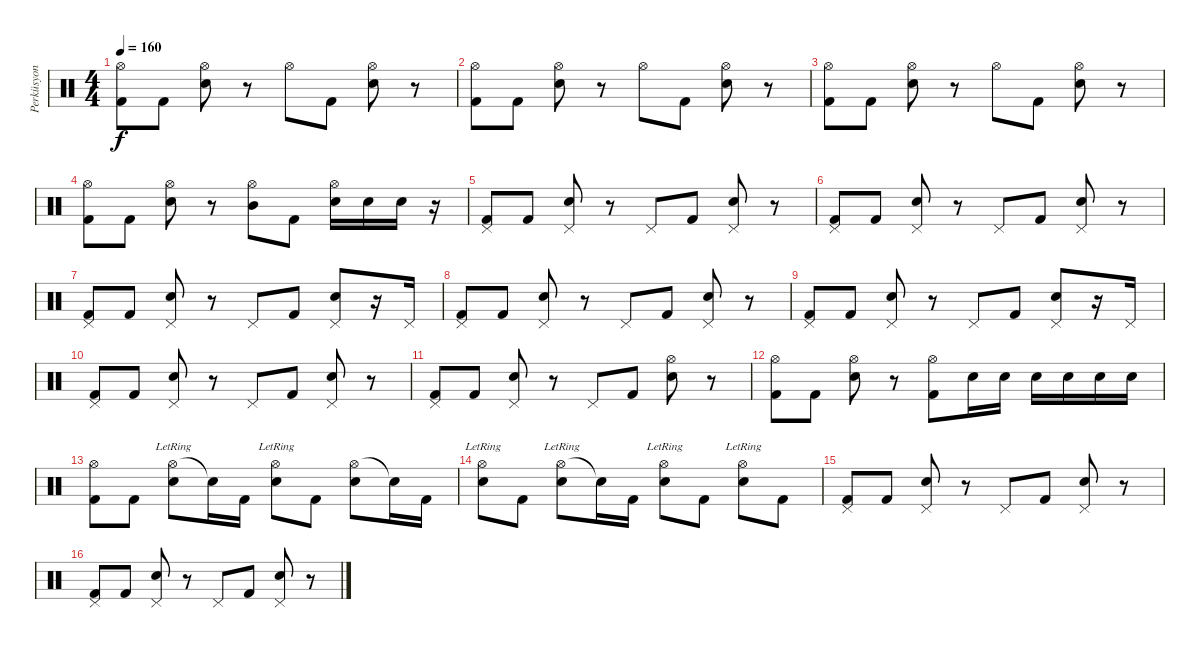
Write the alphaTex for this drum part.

\track ("Perküsyon" "Perküsyon") {instrument percussion}
\staff {score}
\articulation defaults
\ts (4 4)
\tempo 160
\clef neutral
\ks c
("Hi-Hat (open)" "Kick (hit) 2").8{dy f} "Kick (hit) 2".8 ("Hi-Hat (open)" "Electric Snare (hit)").8 r.8 "Hi-Hat (open)".8 "Kick (hit) 2".8 ("Hi-Hat (open)" "Electric Snare (hit)").8 r.8 |
("Hi-Hat (open)" "Kick (hit) 2").8 "Kick (hit) 2".8 ("Hi-Hat (open)" "Electric Snare (hit)").8 r.8 "Hi-Hat (open)".8 "Kick (hit) 2".8 ("Hi-Hat (open)" "Electric Snare (hit)").8 r.8 |
("Hi-Hat (open)" "Kick (hit) 2").8 "Kick (hit) 2".8 ("Hi-Hat (open)" "Electric Snare (hit)").8 r.8 "Hi-Hat (open)".8 "Kick (hit) 2".8 ("Hi-Hat (open)" "Electric Snare (hit)").8 r.8 |
("Hi-Hat (open)" "Kick (hit) 2").8 "Kick (hit) 2".8 ("Hi-Hat (open)" "Electric Snare (hit)").8 r.8 ("Hi-Hat (open)" "Mid Tom (hit)").8 "Kick (hit) 2".8 ("Hi-Hat (open)" "Electric Snare (hit)").16 "Electric Snare (hit)".16 "Electric Snare (hit)".16 r.16 |
("Pedal Hi-Hat (hit)" "Kick (hit) 2").8 "Kick (hit) 2".8 ("Pedal Hi-Hat (hit)" "Electric Snare (hit)").8 r.8 "Pedal Hi-Hat (hit)".8 "Kick (hit) 2".8 ("Pedal Hi-Hat (hit)" "Electric Snare (hit)").8 r.8 |
("Pedal Hi-Hat (hit)" "Kick (hit) 2").8 "Kick (hit) 2".8 ("Pedal Hi-Hat (hit)" "Electric Snare (hit)").8 r.8 "Pedal Hi-Hat (hit)".8 "Kick (hit) 2".8 ("Pedal Hi-Hat (hit)" "Electric Snare (hit)").8 r.8 |
("Pedal Hi-Hat (hit)" "Kick (hit) 2").8 "Kick (hit) 2".8 ("Pedal Hi-Hat (hit)" "Electric Snare (hit)").8 r.8 "Pedal Hi-Hat (hit)".8 "Kick (hit) 2".8 ("Pedal Hi-Hat (hit)" "Electric Snare (hit)").8 r.16 "Pedal Hi-Hat (hit)".16 |
("Pedal Hi-Hat (hit)" "Kick (hit) 2").8 "Kick (hit) 2".8 ("Pedal Hi-Hat (hit)" "Electric Snare (hit)").8 r.8 "Pedal Hi-Hat (hit)".8 "Kick (hit) 2".8 ("Pedal Hi-Hat (hit)" "Electric Snare (hit)").8 r.8 |
("Pedal Hi-Hat (hit)" "Kick (hit) 2").8 "Kick (hit) 2".8 ("Pedal Hi-Hat (hit)" "Electric Snare (hit)").8 r.8 "Pedal Hi-Hat (hit)".8 "Kick (hit) 2".8 ("Pedal Hi-Hat (hit)" "Electric Snare (hit)").8 r.16 "Pedal Hi-Hat (hit)".16 |
("Pedal Hi-Hat (hit)" "Kick (hit) 2").8 "Kick (hit) 2".8 ("Pedal Hi-Hat (hit)" "Electric Snare (hit)").8 r.8 "Pedal Hi-Hat (hit)".8 "Kick (hit) 2".8 ("Pedal Hi-Hat (hit)" "Electric Snare (hit)").8 r.8 |
("Pedal Hi-Hat (hit)" "Kick (hit) 2").8 "Kick (hit) 2".8 ("Pedal Hi-Hat (hit)" "Electric Snare (hit)").8 r.8 "Pedal Hi-Hat (hit)".8 "Kick (hit) 2".8 ("Hi-Hat (open)" "Electric Snare (hit)").8 r.8 |
("Hi-Hat (open)" "Kick (hit) 2").8 "Kick (hit) 2".8 ("Hi-Hat (open)" "Electric Snare (hit)").8 r.8 ("Hi-Hat (open)" "Kick (hit) 2").8 "Electric Snare (hit)".16 "Electric Snare (hit)".16 "Electric Snare (hit)".16 "Electric Snare (hit)".16 "Electric Snare (hit)".16 "Electric Snare (hit)".16 |
("Hi-Hat (open)" "Kick (hit) 2").8 "Kick (hit) 2".8 ("Hi-Hat (open)" "Electric Snare (hit)"{lr}).8 "Snare (hit)"{t}.16 "Kick (hit) 2".16 ("Hi-Hat (open)" "Electric Snare (hit)"{lr}).8 "Kick (hit) 2".8 ("Hi-Hat (open)" "Electric Snare (hit)").8 "Snare (hit)"{t}.16 "Kick (hit) 2".16 |
("Hi-Hat (open)" "Electric Snare (hit)"{lr}).8 "Kick (hit) 2".8 ("Hi-Hat (open)" "Electric Snare (hit)"{lr}).8 "Snare (hit)"{t}.16 "Kick (hit) 2".16 ("Hi-Hat (open)" "Electric Snare (hit)"{lr}).8 "Kick (hit) 2".8 ("Hi-Hat (open)" "Electric Snare (hit)"{lr}).8 "Kick (hit) 2".8 |
("Pedal Hi-Hat (hit)" "Kick (hit) 2").8 "Kick (hit) 2".8 ("Pedal Hi-Hat (hit)" "Electric Snare (hit)").8 r.8 "Pedal Hi-Hat (hit)".8 "Kick (hit) 2".8 ("Pedal Hi-Hat (hit)" "Electric Snare (hit)").8 r.8 |
("Pedal Hi-Hat (hit)" "Kick (hit) 2").8 "Kick (hit) 2".8 ("Pedal Hi-Hat (hit)" "Electric Snare (hit)").8 r.8 "Pedal Hi-Hat (hit)".8 "Kick (hit) 2".8 ("Pedal Hi-Hat (hit)" "Electric Snare (hit)").8 r.8
